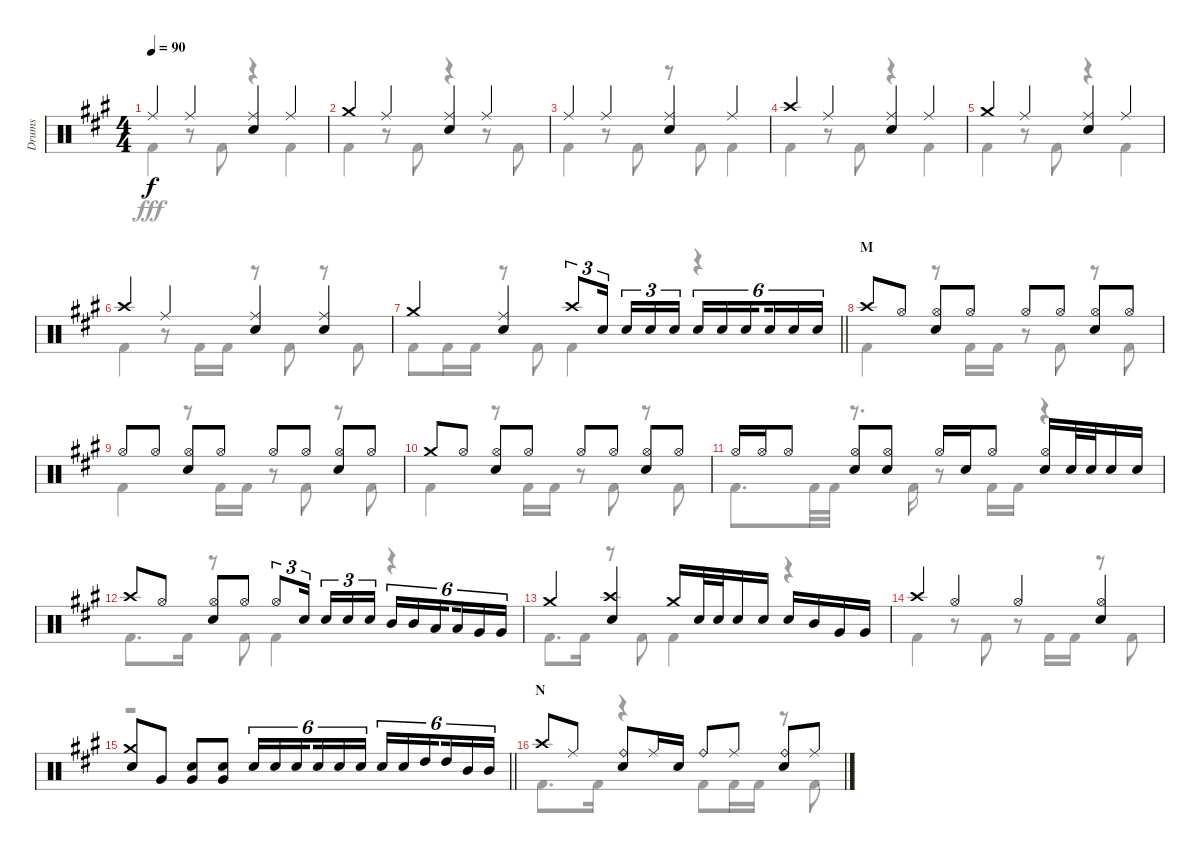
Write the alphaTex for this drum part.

\track ("Drums" "Drums") {instrument percussion}
\staff {score}
\articulation defaults
\voice
\ts (4 4)
\tempo 90
\clef neutral
\ks a "Ride (middle)".4{dy f} "Ride (middle)".4
("Ride (middle)" "Snare (hit) 2").4 "Ride (middle)".4 |
"Crash medium (hit)".4 "Ride (middle)".4 ("Ride (middle)" "Snare (hit) 2").4 "Ride (middle)".4 |
"Ride (middle)".4 "Ride (middle)".4 ("Ride (middle)" "Snare (hit) 2").4 "Ride (middle)".4 |
"Crash high (hit)".4 "Ride (middle)".4 ("Ride (middle)" "Snare (hit) 2").4 "Ride (middle)".4 |
"Crash medium (hit)".4 "Ride (middle)".4 ("Ride (middle)" "Snare (hit) 2").4 "Ride (middle)".4 |
"Crash high (hit)".4 "Ride (middle)".4 ("Ride (middle)" "Snare (hit) 2").4 ("Ride (middle)" "Snare (hit) 2").4 |
\barLineRight lightlight "Crash medium (hit)".4
("Ride (middle)" "Snare (hit) 2").4 "Crash high (hit)".8{tu (3 2)} "Snare (hit) 2".16{tu (3 2) beam splitsecondary} "Snare (hit) 2".16{tu (3 2)} "Snare (hit) 2".16{tu (3 2)} "Snare (hit) 2".16{tu (3 2)} "Snare (hit) 2".16{tu (6 4)} "Snare (hit) 2".16{tu (6 4)} "Snare (hit) 2".16{tu (6 4) beam splitsecondary} "Snare (hit) 2".16{tu (6 4)} "Snare (hit) 2".16{tu (6 4)} "Snare (hit) 2".16{tu (6 4)} |
\section ("" "M")
"Crash high (hit)".8 "Hi-Hat (open)".8 ("Hi-Hat (open)" "Snare (hit) 2").8 "Hi-Hat (open)".8 "Hi-Hat (open)".8 "Hi-Hat (open)".8 ("Hi-Hat (open)" "Snare (hit) 2").8 "Hi-Hat (open)".8 |
"Hi-Hat (open)".8 "Hi-Hat (open)".8 ("Hi-Hat (open)" "Snare (hit) 2").8 "Hi-Hat (open)".8 "Hi-Hat (open)".8 "Hi-Hat (open)".8 ("Hi-Hat (open)" "Snare (hit) 2").8 "Hi-Hat (open)".8 |
"Crash medium (hit)".8 "Hi-Hat (open)".8 ("Hi-Hat (open)" "Snare (hit) 2").8 "Hi-Hat (open)".8 "Hi-Hat (open)".8 "Hi-Hat (open)".8 ("Hi-Hat (open)" "Snare (hit) 2").8 "Hi-Hat (open)".8 |
"Hi-Hat (open)".16 "Hi-Hat (open)".16 "Hi-Hat (open)".8 ("Hi-Hat (open)" "Snare (hit) 2").8 ("Hi-Hat (open)" "Snare (hit) 2").8 "Hi-Hat (open)".16 "Snare (hit) 2".16 "Hi-Hat (open)".8 ("Hi-Hat (open)" "Snare (hit) 2").16 "Snare (hit) 2".32 "Snare (hit) 2".32 "Snare (hit) 2".16 "Snare (hit) 2".16 |
"Crash high (hit)".8 "Hi-Hat (open)".8 ("Hi-Hat (open)" "Snare (hit) 2").8 "Hi-Hat (open)".8 "Hi-Hat (open)".8{tu (3 2)} "Snare (hit) 2".16{tu (3 2) beam splitsecondary} "Snare (hit) 2".16{tu (3 2)} "Snare (hit) 2".16{tu (3 2)} "Snare (hit) 2".16{tu (3 2)} "Mid Tom (hit)".16{tu (6 4)} "Mid Tom (hit)".16{tu (6 4)} "Low Tom (hit)".16{tu (6 4) beam splitsecondary} "Low Tom (hit)".16{tu (6 4)} "Very Low Tom (hit)".16{tu (6 4)} "Very Low Tom (hit)".16{tu (6 4)} |
"Crash medium (hit)".4 ("Crash high (hit)" "Snare (hit) 2").4 "Crash medium (hit)".16 "Snare (hit) 2".32 "Snare (hit) 2".32 "Snare (hit) 2".16 "Snare (hit) 2".16 "Snare (hit) 2".16 "Mid Tom (hit)".16 "Very Low Tom (hit)".16 "Very Low Tom (hit)".16 |
"Crash high (hit)".4 "Hi-Hat (open)".4 "Hi-Hat (open)".4 ("Hi-Hat (open)" "Snare (hit) 2").4 |
\barLineRight lightlight
("Crash medium (hit)" "Snare (hit) 2").8 "Very Low Tom (hit)".8 ("Snare (hit) 2" "Very Low Tom (hit)").8 ("Snare (hit) 2" "Very Low Tom (hit)").8 "Snare (hit) 2".16{tu (6 4)} "Snare (hit) 2".16{tu (6 4)} "Snare (hit) 2".16{tu (6 4) beam splitsecondary} "Snare (hit) 2".16{tu (6 4)} "Snare (hit) 2".16{tu (6 4)} "Snare (hit) 2".16{tu (6 4)} "Snare (hit) 2".16{tu (6 4)} "Snare (hit) 2".16{tu (6 4)} "High Tom (hit)".16{tu (6 4) beam splitsecondary} "High Tom (hit)".16{tu (6 4)} "Mid Tom (hit)".16{tu (6 4)} "Mid Tom (hit)".16{tu (6 4)} |
\section ("" "N")
"Crash high (hit)".8 "Ride (middle)".8 ("Ride (bell)" "Snare (hit) 2").8 "Ride (middle)".16 "Snare (hit) 2".16 "Ride (bell)".8 "Ride (middle)".8 ("Ride (bell)" "Snare (hit) 2").8 "Ride (middle)".8
\voice
\clef neutral
\ottava regular
\simile none
\ks a "Kick (hit) 2".4{dy fff}
r.8 "Kick (hit) 2".8 r.4 "Kick (hit) 2".4 |
"Kick (hit) 2".4 r.8 "Kick (hit) 2".8 r.4 r.8 "Kick (hit) 2".8 |
"Kick (hit) 2".4 r.8 "Kick (hit) 2".8 r.8 "Kick (hit) 2".8 "Kick (hit) 2".4 |
"Kick (hit) 2".4 r.8 "Kick (hit) 2".8 r.4 "Kick (hit) 2".4 |
"Kick (hit) 2".4 r.8 "Kick (hit) 2".8 r.4 "Kick (hit) 2".4 |
"Kick (hit) 2".4 r.8 "Kick (hit) 2".16 "Kick (hit) 2".16 r.8 "Kick (hit) 2".8 r.8 "Kick (hit) 2".8 |
\barLineRight lightlight "Kick (hit) 2".8 "Kick (hit) 2".16 "Kick (hit) 2".16
r.8 "Kick (hit) 2".8 "Kick (hit) 2".4 r.4 |
"Kick (hit) 2".4 r.8 "Kick (hit) 2".16 "Kick (hit) 2".16 r.8 "Kick (hit) 2".8 r.8 "Kick (hit) 2".8 |
"Kick (hit) 2".4 r.8 "Kick (hit) 2".16 "Kick (hit) 2".16 r.8 "Kick (hit) 2".8 r.8 "Kick (hit) 2".8 |
"Kick (hit) 2".4 r.8 "Kick (hit) 2".16 "Kick (hit) 2".16 r.8 "Kick (hit) 2".8 r.8 "Kick (hit) 2".8 |
"Kick (hit) 2".8{d} "Kick (hit) 2".32 "Kick (hit) 2".32 r.8{d} "Kick (hit) 2".16 r.8 "Kick (hit) 2".16 "Kick (hit) 2".16 r.4 |
"Kick (hit) 2".8{d} "Kick (hit) 2".16 r.8 "Kick (hit) 2".8 "Kick (hit) 2".4 r.4 |
"Kick (hit) 2".8{d} "Kick (hit) 2".16 r.8 "Kick (hit) 2".8 "Kick (hit) 2".4 r.4 |
"Kick (hit) 2".4 r.8 "Kick (hit) 2".8 r.8 "Kick (hit) 2".16 "Kick (hit) 2".16 r.8 "Kick (hit) 2".8 |
\barLineRight lightlight
r.1 |
"Kick (hit) 2".8{d} "Kick (hit) 2".16 r.4 "Kick (hit) 2".8 "Kick (hit) 2".16 "Kick (hit) 2".16 r.8 "Kick (hit) 2".8
